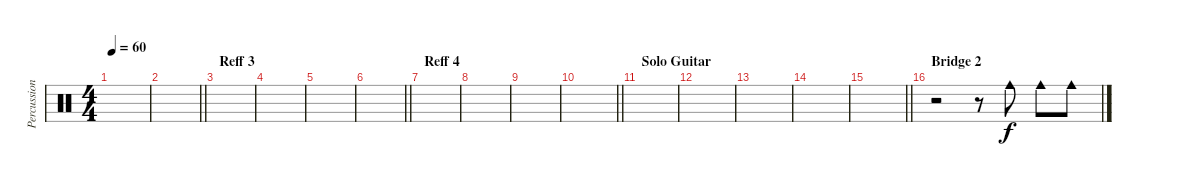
\track ("Percussion 2" "Percussion") {instrument percussion}
\staff {score}
\articulation defaults
\ts (4 4)
\tempo 60
\clef neutral
\ks c
|
\barLineRight lightlight
|
\section ("" "Reff 3")
|
|
|
\barLineRight lightlight
|
\section ("" "Reff 4")
|
|
|
\barLineRight lightlight
|
\section ("" "Solo Guitar")
|
|
|
|
\barLineRight lightlight
|
\section ("" "Bridge 2")
r.2 r.8 "Cowbell medium (hit)".8{balance 5} "Cowbell medium (hit)".8{balance 0} "Cowbell medium (hit)".8{balance 5}
